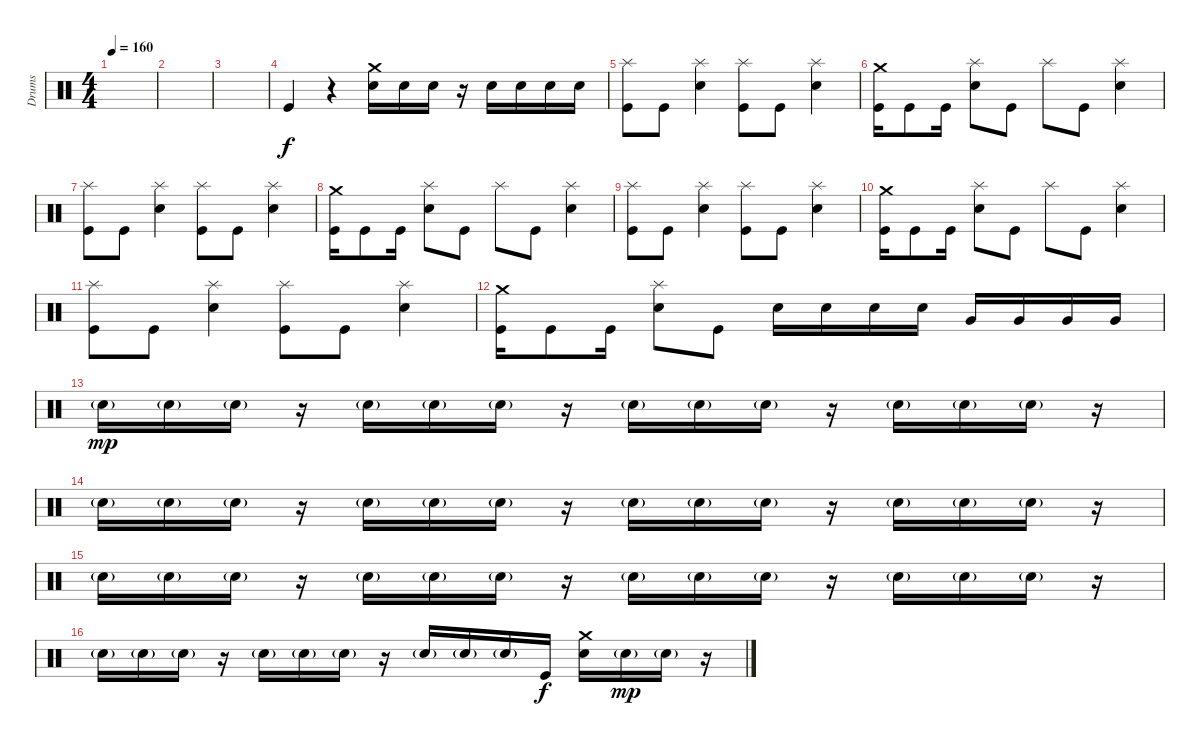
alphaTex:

\track ("Drums" "Drums") {instrument percussion}
\staff {score}
\articulation defaults
\ts (4 4)
\tempo 160
\clef neutral
\ks c
|
|
|
"Kick (hit)".4 r.4 ("Crash medium (hit)" "Electric Snare (hit)").16 "Electric Snare (hit)".16 "Electric Snare (hit)".16 r.16 "Electric Snare (hit)".16 "Electric Snare (hit)".16 "Electric Snare (hit)".16 "Electric Snare (hit)".16 |
("Splash (hit)" "Kick (hit)").8 "Kick (hit)".8 ("Splash (hit)" "Electric Snare (hit)").4 ("Splash (hit)" "Kick (hit)").8 "Kick (hit)".8 ("Splash (hit)" "Electric Snare (hit)").4 |
("Crash medium (hit)" "Kick (hit)").16 "Kick (hit)".8 "Kick (hit)".16 ("Splash (hit)" "Electric Snare (hit)").8 "Kick (hit)".8 "Splash (hit)".8 "Kick (hit)".8 ("Splash (hit)" "Electric Snare (hit)").4 |
("Splash (hit)" "Kick (hit)").8 "Kick (hit)".8 ("Splash (hit)" "Electric Snare (hit)").4 ("Splash (hit)" "Kick (hit)").8 "Kick (hit)".8 ("Splash (hit)" "Electric Snare (hit)").4 |
("Crash medium (hit)" "Kick (hit)").16 "Kick (hit)".8 "Kick (hit)".16 ("Splash (hit)" "Electric Snare (hit)").8 "Kick (hit)".8 "Splash (hit)".8 "Kick (hit)".8 ("Splash (hit)" "Electric Snare (hit)").4 |
("Splash (hit)" "Kick (hit)").8 "Kick (hit)".8 ("Splash (hit)" "Electric Snare (hit)").4 ("Splash (hit)" "Kick (hit)").8 "Kick (hit)".8 ("Splash (hit)" "Electric Snare (hit)").4 |
("Crash medium (hit)" "Kick (hit)").16 "Kick (hit)".8 "Kick (hit)".16 ("Splash (hit)" "Electric Snare (hit)").8 "Kick (hit)".8 "Splash (hit)".8 "Kick (hit)".8 ("Splash (hit)" "Electric Snare (hit)").4 |
("Splash (hit)" "Kick (hit)").8 "Kick (hit)".8 ("Splash (hit)" "Electric Snare (hit)").4 ("Splash (hit)" "Kick (hit)").8 "Kick (hit)".8 ("Splash (hit)" "Electric Snare (hit)").4 |
("Crash medium (hit)" "Kick (hit)").16 "Kick (hit)".8 "Kick (hit)".16 ("Splash (hit)" "Electric Snare (hit)").8 "Kick (hit)".8 "Electric Snare (hit)".16 "Electric Snare (hit)".16 "Electric Snare (hit)".16 "Electric Snare (hit)".16 "Very Low Tom (hit)".16 "Very Low Tom (hit)".16 "Very Low Tom (hit)".16 "Very Low Tom (hit)".16 |
"Electric Snare (hit)"{g}.16{dy mp} "Electric Snare (hit)"{g}.16 "Electric Snare (hit)"{g}.16 r.16 "Electric Snare (hit)"{g}.16 "Electric Snare (hit)"{g}.16 "Electric Snare (hit)"{g}.16 r.16 "Electric Snare (hit)"{g}.16 "Electric Snare (hit)"{g}.16 "Electric Snare (hit)"{g}.16 r.16 "Electric Snare (hit)"{g}.16 "Electric Snare (hit)"{g}.16 "Electric Snare (hit)"{g}.16 r.16 |
"Electric Snare (hit)"{g}.16 "Electric Snare (hit)"{g}.16 "Electric Snare (hit)"{g}.16 r.16 "Electric Snare (hit)"{g}.16 "Electric Snare (hit)"{g}.16 "Electric Snare (hit)"{g}.16 r.16 "Electric Snare (hit)"{g}.16 "Electric Snare (hit)"{g}.16 "Electric Snare (hit)"{g}.16 r.16 "Electric Snare (hit)"{g}.16 "Electric Snare (hit)"{g}.16 "Electric Snare (hit)"{g}.16 r.16 |
"Electric Snare (hit)"{g}.16 "Electric Snare (hit)"{g}.16 "Electric Snare (hit)"{g}.16 r.16 "Electric Snare (hit)"{g}.16 "Electric Snare (hit)"{g}.16 "Electric Snare (hit)"{g}.16 r.16 "Electric Snare (hit)"{g}.16 "Electric Snare (hit)"{g}.16 "Electric Snare (hit)"{g}.16 r.16 "Electric Snare (hit)"{g}.16 "Electric Snare (hit)"{g}.16 "Electric Snare (hit)"{g}.16 r.16 |
"Electric Snare (hit)"{g}.16 "Electric Snare (hit)"{g}.16 "Electric Snare (hit)"{g}.16 r.16 "Electric Snare (hit)"{g}.16 "Electric Snare (hit)"{g}.16 "Electric Snare (hit)"{g}.16 r.16 "Electric Snare (hit)"{g}.16 "Electric Snare (hit)"{g}.16 "Electric Snare (hit)"{g}.16 "Kick (hit)".16{dy f} ("Crash medium (hit)" "Electric Snare (hit)").16 "Electric Snare (hit)"{g}.16{dy mp} "Electric Snare (hit)"{g}.16 r.16
